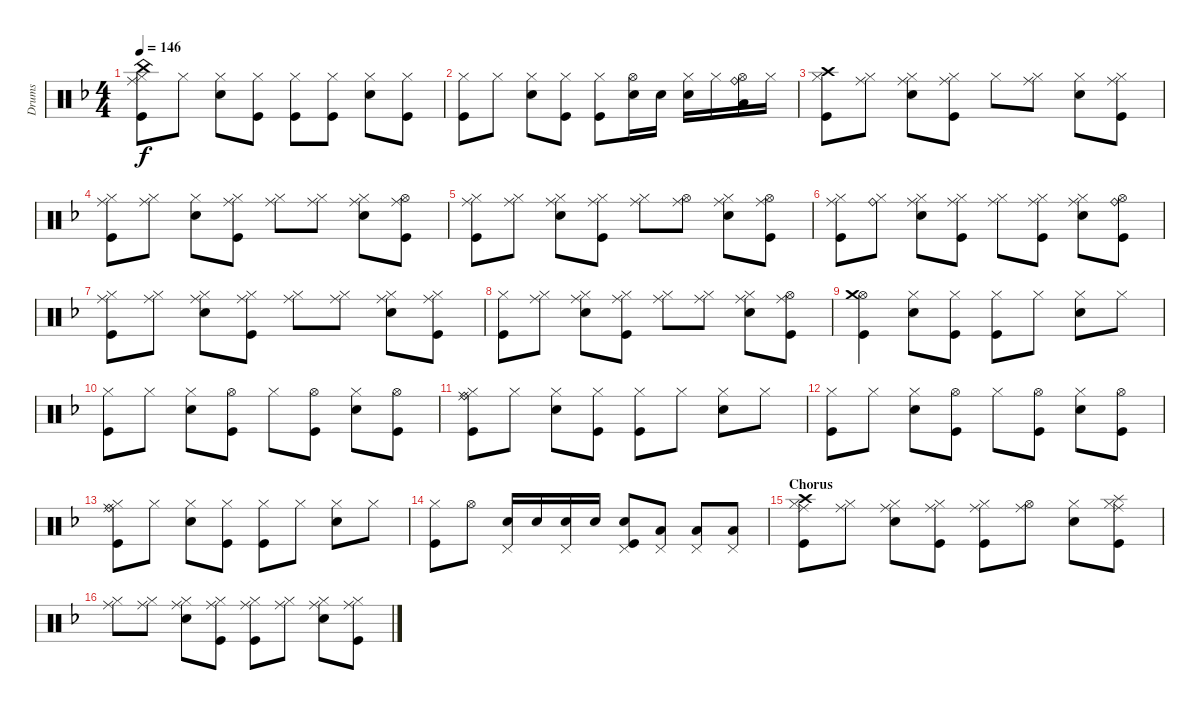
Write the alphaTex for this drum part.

\track ("Drums" "Drums") {instrument percussion}
\staff {score}
\articulation defaults
\ts (4 4)
\tempo 146
\clef neutral
\ks f
("Kick (hit)" "Hi-Hat (closed)" "Ride (middle)" "China (hit)").8{dy f} "Hi-Hat (closed)".8 ("Snare (hit) 2" "Hi-Hat (closed)").8 ("Kick (hit)" "Hi-Hat (closed)").8 ("Kick (hit)" "Hi-Hat (closed)").8 ("Kick (hit)" "Hi-Hat (closed)").8 ("Snare (hit) 2" "Hi-Hat (closed)").8 ("Kick (hit)" "Hi-Hat (closed)").8 |
("Kick (hit)" "Hi-Hat (closed)").8 "Hi-Hat (closed)".8 ("Snare (hit) 2" "Hi-Hat (closed)").8 ("Kick (hit)" "Hi-Hat (closed)").8 ("Kick (hit)" "Hi-Hat (closed)").8 ("Snare (hit) 2" "Hi-Hat (open)").16 "Snare (hit) 2".16 ("Snare (hit) 2" "Hi-Hat (closed)").16 "Hi-Hat (closed)".16 ("Low Floor Tom (hit)" "Hi-Hat (open)" "Ride (bell)").16 "Hi-Hat (closed)".16 |
("Kick (hit)" "Hi-Hat (closed)" "Crash high (hit)").8 ("Hi-Hat (closed)" "Ride (middle)").8 ("Snare (hit) 2" "Hi-Hat (closed)" "Ride (middle)").8 ("Hi-Hat (closed)" "Ride (middle)" "Kick (hit)").8 "Hi-Hat (closed)".8 ("Hi-Hat (closed)" "Ride (middle)").8 ("Snare (hit) 2" "Hi-Hat (closed)").8 ("Kick (hit)" "Hi-Hat (closed)" "Ride (middle)").8 |
("Kick (hit)" "Hi-Hat (closed)" "Ride (middle)").8 ("Hi-Hat (closed)" "Ride (middle)").8 ("Snare (hit) 2" "Hi-Hat (closed)").8 ("Kick (hit)" "Hi-Hat (closed)" "Ride (middle)").8 ("Hi-Hat (closed)" "Ride (middle)").8 ("Hi-Hat (closed)" "Ride (middle)").8 ("Snare (hit) 2" "Hi-Hat (closed)" "Ride (middle)").8 ("Kick (hit)" "Hi-Hat (open)" "Ride (middle)").8 |
("Hi-Hat (closed)" "Ride (middle)" "Kick (hit)").8 ("Hi-Hat (closed)" "Ride (middle)").8 ("Hi-Hat (closed)" "Ride (middle)" "Snare (hit) 2").8 ("Kick (hit)" "Hi-Hat (closed)" "Ride (middle)").8 ("Hi-Hat (closed)" "Ride (middle)").8 ("Hi-Hat (open)" "Ride (middle)").8 ("Snare (hit) 2" "Hi-Hat (closed)" "Ride (middle)").8 ("Kick (hit)" "Hi-Hat (open)" "Ride (middle)").8 |
("Hi-Hat (closed)" "Ride (middle)" "Kick (hit)").8 ("Hi-Hat (closed)" "Ride (bell)").8 ("Hi-Hat (closed)" "Ride (middle)" "Snare (hit) 2").8 ("Ride (middle)" "Kick (hit)" "Hi-Hat (closed)").8 ("Hi-Hat (closed)" "Ride (middle)").8 ("Kick (hit)" "Hi-Hat (closed)" "Ride (middle)").8 ("Snare (hit) 2" "Hi-Hat (closed)" "Ride (middle)").8 ("Kick (hit)" "Hi-Hat (open)" "Ride (bell)").8 |
("Ride (middle)" "Kick (hit)" "Hi-Hat (closed)").8 ("Hi-Hat (closed)" "Ride (middle)").8 ("Hi-Hat (closed)" "Ride (middle)" "Snare (hit) 2").8 ("Kick (hit)" "Hi-Hat (closed)" "Ride (middle)").8 ("Hi-Hat (closed)" "Ride (middle)").8 ("Hi-Hat (closed)" "Ride (middle)").8 ("Ride (middle)" "Snare (hit) 2" "Hi-Hat (closed)").8 ("Hi-Hat (closed)" "Ride (middle)" "Kick (hit)").8 |
("Kick (hit)" "Hi-Hat (closed)").8 ("Hi-Hat (closed)" "Ride (middle)").8 ("Snare (hit) 2" "Hi-Hat (closed)" "Ride (middle)").8 ("Ride (middle)" "Kick (hit)" "Hi-Hat (closed)").8 ("Hi-Hat (closed)" "Ride (middle)").8 ("Hi-Hat (closed)" "Ride (middle)").8 ("Snare (hit) 2" "Hi-Hat (closed)" "Ride (middle)").8 ("Hi-Hat (open)" "Ride (middle)" "Kick (hit)").8 |
("Kick (hit)" "Hi-Hat (open)" "Crash medium (hit)").4 ("Snare (hit) 2" "Hi-Hat (closed)").8 ("Kick (hit)" "Hi-Hat (closed)").8 ("Kick (hit)" "Hi-Hat (closed)").8 "Hi-Hat (closed)".8 ("Snare (hit) 2" "Hi-Hat (closed)").8 "Hi-Hat (closed)".8 |
("Kick (hit)" "Hi-Hat (closed)").8 "Hi-Hat (closed)".8 ("Snare (hit) 2" "Hi-Hat (closed)").8 ("Kick (hit)" "Hi-Hat (open)").8 "Hi-Hat (closed)".8 ("Kick (hit)" "Hi-Hat (open)").8 ("Snare (hit) 2" "Hi-Hat (closed)").8 ("Kick (hit)" "Hi-Hat (open)").8 |
("Kick (hit)" "Hi-Hat (closed)" "Ride (middle)" "Ride (bell)").8 "Hi-Hat (closed)".8 ("Snare (hit) 2" "Hi-Hat (closed)").8 ("Kick (hit)" "Hi-Hat (closed)").8 ("Kick (hit)" "Hi-Hat (closed)").8 "Hi-Hat (closed)".8 ("Snare (hit) 2" "Hi-Hat (closed)").8 "Hi-Hat (closed)".8 |
("Kick (hit)" "Hi-Hat (closed)").8 "Hi-Hat (closed)".8 ("Snare (hit) 2" "Hi-Hat (closed)").8 ("Kick (hit)" "Hi-Hat (open)").8 "Hi-Hat (closed)".8 ("Kick (hit)" "Hi-Hat (open)").8 ("Snare (hit) 2" "Hi-Hat (closed)").8 ("Kick (hit)" "Hi-Hat (open)").8 |
("Kick (hit)" "Hi-Hat (closed)" "Ride (middle)" "Ride (bell)").8 "Hi-Hat (closed)".8 ("Snare (hit) 2" "Hi-Hat (closed)").8 ("Kick (hit)" "Hi-Hat (closed)").8 ("Kick (hit)" "Hi-Hat (closed)").8 "Hi-Hat (closed)".8 ("Snare (hit) 2" "Hi-Hat (closed)").8 "Hi-Hat (closed)".8 |
("Kick (hit)" "Hi-Hat (closed)").8 "Hi-Hat (open)".8 ("Snare (hit) 2" "Pedal Hi-Hat (hit)").16 "Snare (hit) 2".16 ("Snare (hit) 2" "Pedal Hi-Hat (hit)").16 "Snare (hit) 2".16 ("Pedal Hi-Hat (hit)" "Kick (hit)" "Snare (hit) 2").8 ("Pedal Hi-Hat (hit)" "Low Tom (hit)").8 ("Low Floor Tom (hit)" "Pedal Hi-Hat (hit)").8 ("Low Floor Tom (hit)" "Pedal Hi-Hat (hit)").8 |
\section ("" "Chorus")
("Kick (hit)" "Hi-Hat (closed)" "Crash high (hit)" "Ride (middle)").8 ("Hi-Hat (closed)" "Ride (middle)").8 ("Ride (middle)" "Snare (hit) 2" "Hi-Hat (closed)").8 ("Kick (hit)" "Hi-Hat (closed)" "Ride (middle)").8 ("Kick (hit)" "Hi-Hat (closed)" "Ride (middle)").8 ("Hi-Hat (open)" "Ride (middle)").8 ("Snare (hit) 2" "Hi-Hat (closed)").8 ("Kick (hit)" "Hi-Hat (closed)" "Ride (middle)" "Splash (hit)").8 |
("Hi-Hat (closed)" "Ride (middle)").8 ("Hi-Hat (closed)" "Ride (middle)").8 ("Snare (hit) 2" "Hi-Hat (closed)" "Ride (middle)").8 ("Kick (hit)" "Hi-Hat (closed)" "Ride (middle)").8 ("Hi-Hat (closed)" "Ride (middle)" "Kick (hit)").8 ("Hi-Hat (closed)" "Ride (middle)").8 ("Snare (hit) 2" "Hi-Hat (closed)" "Ride (middle)").8 ("Kick (hit)" "Hi-Hat (closed)" "Ride (middle)").8
